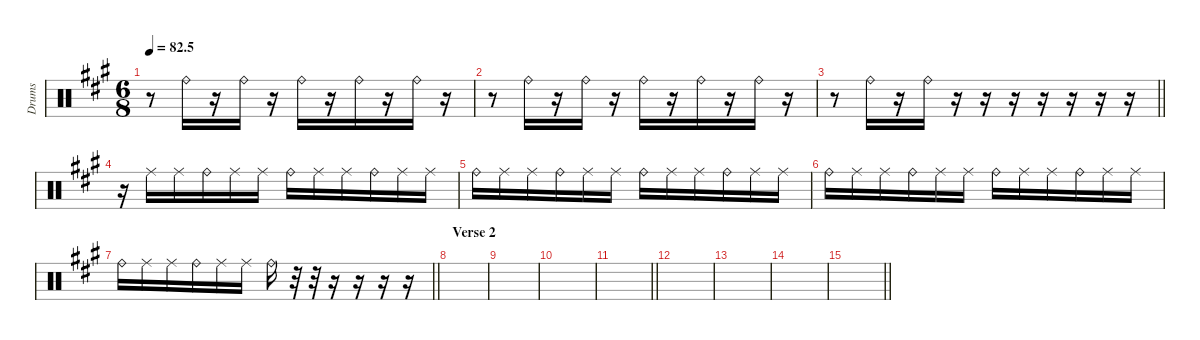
\defaultSystemsLayout 4
\hideDynamics
\bracketExtendMode nobrackets
\otherSystemsTrackNameOrientation horizontal
\track ("Raid" "Drums") {instrument percussion}
\staff {score}
\articulation defaults
\ts (6 8)
\tempo
82.5
\accidentals auto
\clef neutral
\ottava regular
\simile none
\scale
0.333333
\ks a
r.8{dy f} "Ride (bell)"{acc forcenatural}.16 r.16 "Ride (bell)"{acc forcenatural}.16 r.16 "Ride (bell)"{acc forcenatural}.16 r.16 "Ride (bell)"{acc forcenatural}.16 r.16 "Ride (bell)"{acc forcenatural}.16 r.16 |
\scale
0.333333 r.8 "Ride (bell)"{acc forcenatural}.16 r.16 "Ride (bell)"{acc forcenatural}.16 r.16 "Ride (bell)"{acc forcenatural}.16 r.16 "Ride (bell)"{acc forcenatural}.16 r.16 "Ride (bell)"{acc forcenatural}.16 r.16 |
\scale
0.333333
\barLineRight lightlight
r.8 "Ride (bell)"{acc forcenatural}.16 r.16 "Ride (bell)"{acc forcenatural}.16 r.16 r.16 r.16 r.16 r.16 r.16 r.16 |
\scale
0.333333 r.16 "Ride (middle)"{acc forcenatural}.16 "Ride (middle)"{acc forcenatural}.16 "Ride (bell)"{acc forcenatural}.16 "Ride (middle)"{acc forcenatural}.16 "Ride (middle)"{acc forcenatural}.16 "Ride (bell)"{acc forcenatural}.16 "Ride (middle)"{acc forcenatural}.16 "Ride (middle)"{acc forcenatural}.16 "Ride (bell)"{acc forcenatural}.16 "Ride (middle)"{acc forcenatural}.16 "Ride (middle)"{acc forcenatural}.16 |
\scale
0.333333 "Ride (bell)"{acc forcenatural}.16 "Ride (middle)"{acc forcenatural}.16 "Ride (middle)"{acc forcenatural}.16 "Ride (bell)"{acc forcenatural}.16 "Ride (middle)"{acc forcenatural}.16 "Ride (middle)"{acc forcenatural}.16 "Ride (bell)"{acc forcenatural}.16 "Ride (middle)"{acc forcenatural}.16 "Ride (middle)"{acc forcenatural}.16 "Ride (bell)"{acc forcenatural}.16 "Ride (middle)"{acc forcenatural}.16 "Ride (middle)"{acc forcenatural}.16 |
\scale
0.333333 "Ride (bell)"{acc forcenatural}.16 "Ride (middle)"{acc forcenatural}.16 "Ride (middle)"{acc forcenatural}.16 "Ride (bell)"{acc forcenatural}.16 "Ride (middle)"{acc forcenatural}.16 "Ride (middle)"{acc forcenatural}.16 "Ride (bell)"{acc forcenatural}.16 "Ride (middle)"{acc forcenatural}.16 "Ride (middle)"{acc forcenatural}.16 "Ride (bell)"{acc forcenatural}.16 "Ride (middle)"{acc forcenatural}.16 "Ride (middle)"{acc forcenatural}.16 |
\scale
0.333333
\barLineRight lightlight "Ride (bell)"{acc forcenatural}.16 "Ride (middle)"{acc forcenatural}.16 "Ride (middle)"{acc forcenatural}.16 "Ride (bell)"{acc forcenatural}.16 "Ride (middle)"{acc forcenatural}.16 "Ride (middle)"{acc forcenatural}.16 "Ride (bell)"{acc forcenatural}.16
r.32 r.32 r.16 r.16 r.16 r.16 |
\section ("" "Verse 2")
\scale
0.333333 |
\scale
0.333333 |
\scale
0.333333 |
\scale
0.333333
\barLineRight lightlight
|
\scale
0.333333 |
\scale
0.333333 |
\scale
0.333333 |
\scale
0.333333
\barLineRight lightlight
|
\scale
0.333333
